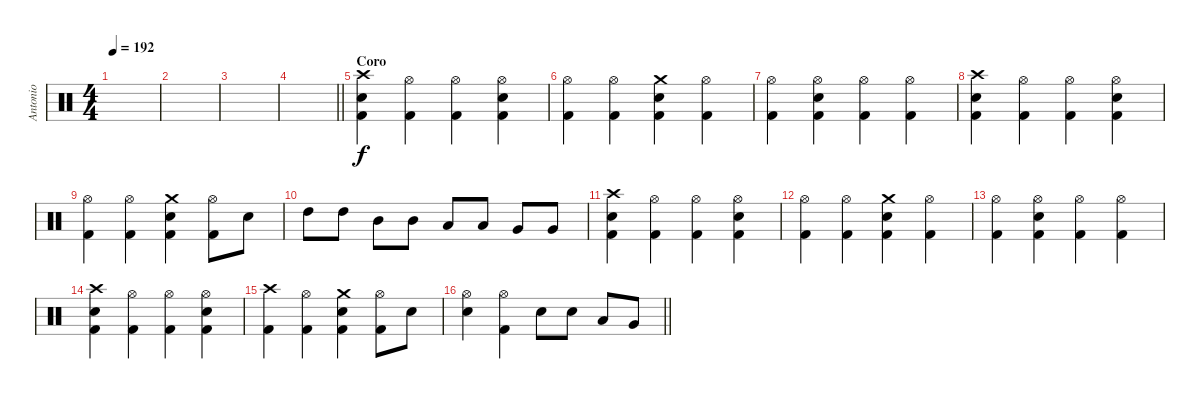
\track ("Antonio" "Antonio") {instrument percussion}
\staff {score}
\articulation defaults
\ts (4 4)
\tempo 192
\clef neutral
\ks c
|
|
|
\barLineRight lightlight
|
\section ("" "Coro")
("Crash high (hit)" "Electric Snare (hit)" "Kick (hit) 2").4 ("Hi-Hat (open)" "Kick (hit) 2").4 ("Hi-Hat (open)" "Kick (hit) 2").4 ("Hi-Hat (open)" "Electric Snare (hit)" "Kick (hit) 2").4 |
("Hi-Hat (open)" "Kick (hit) 2").4 ("Hi-Hat (open)" "Kick (hit) 2").4 ("Crash medium (hit)" "Electric Snare (hit)" "Kick (hit) 2").4 ("Hi-Hat (open)" "Kick (hit) 2").4 |
("Hi-Hat (open)" "Kick (hit) 2").4 ("Hi-Hat (open)" "Electric Snare (hit)" "Kick (hit) 2").4 ("Hi-Hat (open)" "Kick (hit) 2").4 ("Hi-Hat (open)" "Kick (hit) 2").4 |
("Crash high (hit)" "Electric Snare (hit)" "Kick (hit) 2").4 ("Hi-Hat (open)" "Kick (hit) 2").4 ("Hi-Hat (open)" "Kick (hit) 2").4 ("Hi-Hat (open)" "Electric Snare (hit)" "Kick (hit) 2").4 |
("Hi-Hat (open)" "Kick (hit) 2").4 ("Hi-Hat (open)" "Kick (hit) 2").4 ("Crash medium (hit)" "Electric Snare (hit)" "Kick (hit) 2").4 ("Hi-Hat (open)" "Kick (hit) 2").8 "Electric Snare (hit)".8 |
"High Tom (hit)".8 "High Tom (hit)".8 "Mid Tom (hit)".8 "Mid Tom (hit)".8 "Low Tom (hit)".8 "Low Tom (hit)".8 "Very Low Tom (hit)".8 "Very Low Tom (hit)".8 |
("Crash high (hit)" "Electric Snare (hit)" "Kick (hit) 2").4 ("Hi-Hat (open)" "Kick (hit) 2").4 ("Hi-Hat (open)" "Kick (hit) 2").4 ("Hi-Hat (open)" "Electric Snare (hit)" "Kick (hit) 2").4 |
("Hi-Hat (open)" "Kick (hit) 2").4 ("Hi-Hat (open)" "Kick (hit) 2").4 ("Crash medium (hit)" "Electric Snare (hit)" "Kick (hit) 2").4 ("Hi-Hat (open)" "Kick (hit) 2").4 |
("Hi-Hat (open)" "Kick (hit) 2").4 ("Hi-Hat (open)" "Electric Snare (hit)" "Kick (hit) 2").4 ("Hi-Hat (open)" "Kick (hit) 2").4 ("Hi-Hat (open)" "Kick (hit) 2").4 |
("Crash high (hit)" "Electric Snare (hit)" "Kick (hit) 2").4 ("Hi-Hat (open)" "Kick (hit) 2").4 ("Hi-Hat (open)" "Kick (hit) 2").4 ("Hi-Hat (open)" "Electric Snare (hit)" "Kick (hit) 2").4 |
("Crash high (hit)" "Kick (hit) 2").4 ("Hi-Hat (open)" "Kick (hit) 2").4 ("Crash medium (hit)" "Electric Snare (hit)" "Kick (hit) 2").4 ("Hi-Hat (open)" "Kick (hit) 2").8 "Electric Snare (hit)".8 |
\barLineRight lightlight
("Hi-Hat (open)" "Electric Snare (hit)").4 ("Hi-Hat (open)" "Kick (hit) 2").4 "Electric Snare (hit)".8 "Electric Snare (hit)".8 "Low Tom (hit)".8 "Very Low Tom (hit)".8
